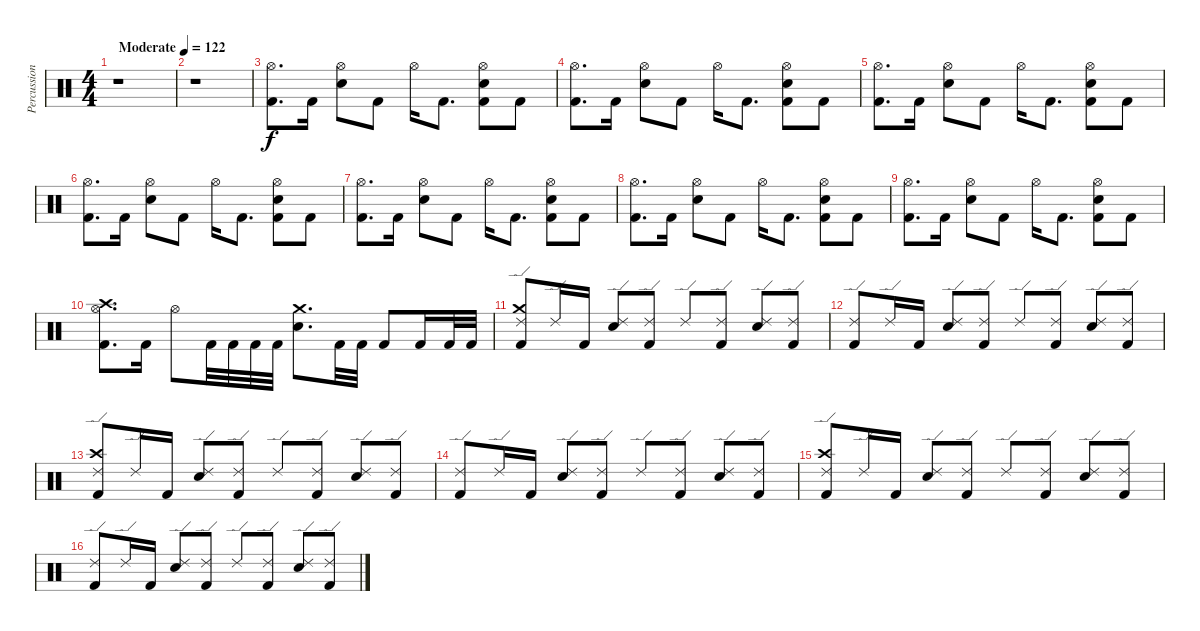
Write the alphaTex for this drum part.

\track ("Percussion" "Percussion") {instrument percussion}
\staff {score}
\articulation defaults
\ts (4 4)
\tempo (122 "Moderate")
\clef neutral
\ks c
r.1{dy f} |
r.1 |
("Hi-Hat (open)" "Kick (hit) 2").8{d} "Kick (hit) 2".16 ("Hi-Hat (open)" "Electric Snare (hit)").8 "Kick (hit) 2".8 "Hi-Hat (open)".16 "Kick (hit) 2".8{d} ("Hi-Hat (open)" "Electric Snare (hit)" "Kick (hit) 2").8 "Kick (hit) 2".8 |
("Hi-Hat (open)" "Kick (hit) 2").8{d} "Kick (hit) 2".16 ("Hi-Hat (open)" "Electric Snare (hit)").8 "Kick (hit) 2".8 "Hi-Hat (open)".16 "Kick (hit) 2".8{d} ("Hi-Hat (open)" "Electric Snare (hit)" "Kick (hit) 2").8 "Kick (hit) 2".8 |
("Hi-Hat (open)" "Kick (hit) 2").8{d} "Kick (hit) 2".16 ("Hi-Hat (open)" "Electric Snare (hit)").8 "Kick (hit) 2".8 "Hi-Hat (open)".16 "Kick (hit) 2".8{d} ("Hi-Hat (open)" "Electric Snare (hit)" "Kick (hit) 2").8 "Kick (hit) 2".8 |
("Hi-Hat (open)" "Kick (hit) 2").8{d} "Kick (hit) 2".16 ("Hi-Hat (open)" "Electric Snare (hit)").8 "Kick (hit) 2".8 "Hi-Hat (open)".16 "Kick (hit) 2".8{d} ("Hi-Hat (open)" "Electric Snare (hit)" "Kick (hit) 2").8 "Kick (hit) 2".8 |
("Hi-Hat (open)" "Kick (hit) 2").8{d} "Kick (hit) 2".16 ("Hi-Hat (open)" "Electric Snare (hit)").8 "Kick (hit) 2".8 "Hi-Hat (open)".16 "Kick (hit) 2".8{d} ("Hi-Hat (open)" "Electric Snare (hit)" "Kick (hit) 2").8 "Kick (hit) 2".8 |
("Hi-Hat (open)" "Kick (hit) 2").8{d} "Kick (hit) 2".16 ("Hi-Hat (open)" "Electric Snare (hit)").8 "Kick (hit) 2".8 "Hi-Hat (open)".16 "Kick (hit) 2".8{d} ("Hi-Hat (open)" "Electric Snare (hit)" "Kick (hit) 2").8 "Kick (hit) 2".8 |
("Hi-Hat (open)" "Kick (hit) 2").8{d} "Kick (hit) 2".16 ("Hi-Hat (open)" "Electric Snare (hit)").8 "Kick (hit) 2".8 "Hi-Hat (open)".16 "Kick (hit) 2".8{d} ("Hi-Hat (open)" "Electric Snare (hit)" "Kick (hit) 2").8 "Kick (hit) 2".8 |
("Hi-Hat (open)" "Crash high (hit)" "Kick (hit) 2").8{d} "Kick (hit) 2".16 "Hi-Hat (open)".8 "Kick (hit) 2".32 "Kick (hit) 2".32 "Kick (hit) 2".32 "Kick (hit) 2".32 ("Crash medium (hit)" "Electric Snare (hit)").8{d} "Kick (hit) 2".32 "Kick (hit) 2".32 "Kick (hit) 2".8 "Kick (hit) 2".16 "Kick (hit) 2".32 "Kick (hit) 2".32 |
("Ride (edge) 2" "Crash medium (hit)" "Kick (hit) 2").8 "Ride (edge) 2".16 "Kick (hit) 2".16 ("Ride (edge) 2" "Electric Snare (hit)").8 ("Ride (edge) 2" "Kick (hit) 2").8 "Ride (edge) 2".8 ("Ride (edge) 2" "Kick (hit) 2").8 ("Ride (edge) 2" "Electric Snare (hit)").8 ("Ride (edge) 2" "Kick (hit) 2").8 |
("Ride (edge) 2" "Kick (hit) 2").8 "Ride (edge) 2".16 "Kick (hit) 2".16 ("Ride (edge) 2" "Electric Snare (hit)").8 ("Ride (edge) 2" "Kick (hit) 2").8 "Ride (edge) 2".8 ("Ride (edge) 2" "Kick (hit) 2").8 ("Ride (edge) 2" "Electric Snare (hit)").8 ("Ride (edge) 2" "Kick (hit) 2").8 |
("Ride (edge) 2" "Crash high (hit)" "Kick (hit) 2").8 "Ride (edge) 2".16 "Kick (hit) 2".16 ("Ride (edge) 2" "Electric Snare (hit)").8 ("Ride (edge) 2" "Kick (hit) 2").8 "Ride (edge) 2".8 ("Ride (edge) 2" "Kick (hit) 2").8 ("Ride (edge) 2" "Electric Snare (hit)").8 ("Ride (edge) 2" "Kick (hit) 2").8 |
("Ride (edge) 2" "Kick (hit) 2").8 "Ride (edge) 2".16 "Kick (hit) 2".16 ("Ride (edge) 2" "Electric Snare (hit)").8 ("Ride (edge) 2" "Kick (hit) 2").8 "Ride (edge) 2".8 ("Ride (edge) 2" "Kick (hit) 2").8 ("Ride (edge) 2" "Electric Snare (hit)").8 ("Ride (edge) 2" "Kick (hit) 2").8 |
("Ride (edge) 2" "Crash high (hit)" "Kick (hit) 2").8 "Ride (edge) 2".16 "Kick (hit) 2".16 ("Ride (edge) 2" "Electric Snare (hit)").8 ("Ride (edge) 2" "Kick (hit) 2").8 "Ride (edge) 2".8 ("Ride (edge) 2" "Kick (hit) 2").8 ("Ride (edge) 2" "Electric Snare (hit)").8 ("Ride (edge) 2" "Kick (hit) 2").8 |
("Ride (edge) 2" "Kick (hit) 2").8 "Ride (edge) 2".16 "Kick (hit) 2".16 ("Ride (edge) 2" "Electric Snare (hit)").8 ("Ride (edge) 2" "Kick (hit) 2").8 "Ride (edge) 2".8 ("Ride (edge) 2" "Kick (hit) 2").8 ("Ride (edge) 2" "Electric Snare (hit)").8 ("Ride (edge) 2" "Kick (hit) 2").8
